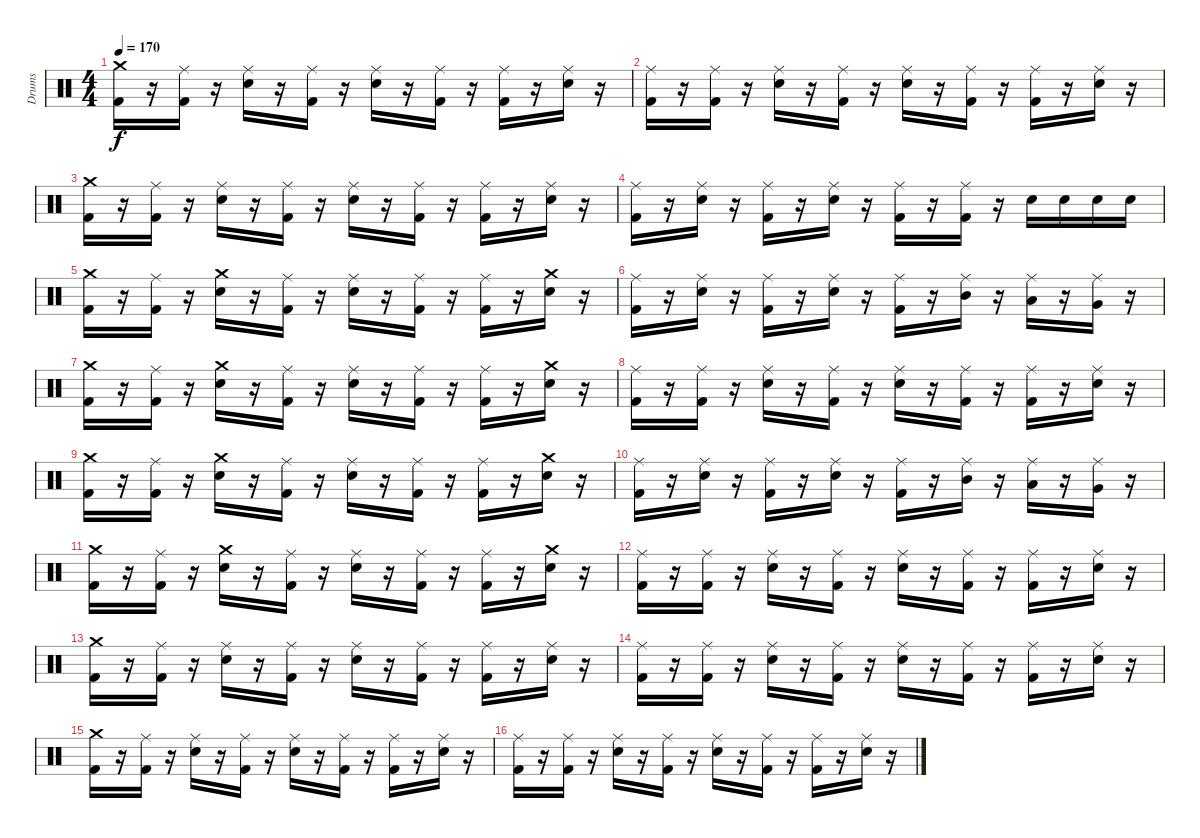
\track ("Drums" "Drums") {instrument percussion}
\staff {score}
\articulation defaults
\ts (4 4)
\tempo 170
\clef neutral
\ks c
("Crash medium (hit)" "Kick (hit) 2").16{dy f} r.16 ("Ride (middle)" "Kick (hit) 2").16 r.16 ("Ride (middle)" "Snare (hit) 2").16 r.16 ("Ride (middle)" "Kick (hit) 2").16 r.16 ("Ride (middle)" "Snare (hit) 2").16 r.16 ("Ride (middle)" "Kick (hit) 2").16 r.16 ("Ride (middle)" "Kick (hit) 2").16 r.16 ("Ride (middle)" "Snare (hit) 2").16 r.16 |
("Ride (middle)" "Kick (hit) 2").16 r.16 ("Ride (middle)" "Kick (hit) 2").16 r.16 ("Ride (middle)" "Snare (hit) 2").16 r.16 ("Ride (middle)" "Kick (hit) 2").16 r.16 ("Ride (middle)" "Snare (hit) 2").16 r.16 ("Ride (middle)" "Kick (hit) 2").16 r.16 ("Ride (middle)" "Kick (hit) 2").16 r.16 ("Ride (middle)" "Snare (hit) 2").16 r.16 |
("Crash medium (hit)" "Kick (hit) 2").16 r.16 ("Ride (middle)" "Kick (hit) 2").16 r.16 ("Ride (middle)" "Snare (hit) 2").16 r.16 ("Ride (middle)" "Kick (hit) 2").16 r.16 ("Ride (middle)" "Snare (hit) 2").16 r.16 ("Ride (middle)" "Kick (hit) 2").16 r.16 ("Ride (middle)" "Kick (hit) 2").16 r.16 ("Ride (middle)" "Snare (hit) 2").16 r.16 |
("Ride (middle)" "Kick (hit) 2").16 r.16 ("Ride (middle)" "Snare (hit) 2").16 r.16 ("Ride (middle)" "Kick (hit) 2").16 r.16 ("Ride (middle)" "Snare (hit) 2").16 r.16 ("Ride (middle)" "Kick (hit) 2").16 r.16 ("Ride (middle)" "Kick (hit) 2").16 r.16 "Snare (hit) 2".16 "Snare (hit) 2".16 "Snare (hit) 2".16 "Snare (hit) 2".16 |
("Crash medium (hit)" "Kick (hit) 2").16 r.16 ("Ride (middle)" "Kick (hit) 2").16 r.16 ("Crash medium (hit)" "Snare (hit) 2").16 r.16 ("Ride (middle)" "Kick (hit) 2").16 r.16 ("Ride (middle)" "Snare (hit) 2").16 r.16 ("Ride (middle)" "Kick (hit) 2").16 r.16 ("Ride (middle)" "Kick (hit) 2").16 r.16 ("Crash medium (hit)" "Snare (hit) 2").16 r.16 |
("Ride (middle)" "Kick (hit) 2").16 r.16 ("Ride (middle)" "Snare (hit) 2").16 r.16 ("Ride (middle)" "Kick (hit) 2").16 r.16 ("Ride (middle)" "Snare (hit) 2").16 r.16 ("Ride (middle)" "Kick (hit) 2").16 r.16 ("Ride (middle)" "Mid Tom (hit)").16 r.16 ("Ride (middle)" "Low Tom (hit)").16 r.16 ("Ride (middle)" "Very Low Tom (hit)").16 r.16 |
("Crash medium (hit)" "Kick (hit) 2").16 r.16 ("Ride (middle)" "Kick (hit) 2").16 r.16 ("Crash medium (hit)" "Snare (hit) 2").16 r.16 ("Ride (middle)" "Kick (hit) 2").16 r.16 ("Ride (middle)" "Snare (hit) 2").16 r.16 ("Ride (middle)" "Kick (hit) 2").16 r.16 ("Ride (middle)" "Kick (hit) 2").16 r.16 ("Crash medium (hit)" "Snare (hit) 2").16 r.16 |
("Ride (middle)" "Kick (hit) 2").16 r.16 ("Ride (middle)" "Kick (hit) 2").16 r.16 ("Ride (middle)" "Snare (hit) 2").16 r.16 ("Ride (middle)" "Kick (hit) 2").16 r.16 ("Ride (middle)" "Snare (hit) 2").16 r.16 ("Ride (middle)" "Kick (hit) 2").16 r.16 ("Ride (middle)" "Kick (hit) 2").16 r.16 ("Ride (middle)" "Snare (hit) 2").16 r.16 |
("Crash medium (hit)" "Kick (hit) 2").16 r.16 ("Ride (middle)" "Kick (hit) 2").16 r.16 ("Crash medium (hit)" "Snare (hit) 2").16 r.16 ("Ride (middle)" "Kick (hit) 2").16 r.16 ("Ride (middle)" "Snare (hit) 2").16 r.16 ("Ride (middle)" "Kick (hit) 2").16 r.16 ("Ride (middle)" "Kick (hit) 2").16 r.16 ("Crash medium (hit)" "Snare (hit) 2").16 r.16 |
("Ride (middle)" "Kick (hit) 2").16 r.16 ("Ride (middle)" "Snare (hit) 2").16 r.16 ("Ride (middle)" "Kick (hit) 2").16 r.16 ("Ride (middle)" "Snare (hit) 2").16 r.16 ("Ride (middle)" "Kick (hit) 2").16 r.16 ("Ride (middle)" "Mid Tom (hit)").16 r.16 ("Ride (middle)" "Low Tom (hit)").16 r.16 ("Ride (middle)" "Very Low Tom (hit)").16 r.16 |
("Crash medium (hit)" "Kick (hit) 2").16 r.16 ("Ride (middle)" "Kick (hit) 2").16 r.16 ("Crash medium (hit)" "Snare (hit) 2").16 r.16 ("Ride (middle)" "Kick (hit) 2").16 r.16 ("Ride (middle)" "Snare (hit) 2").16 r.16 ("Ride (middle)" "Kick (hit) 2").16 r.16 ("Ride (middle)" "Kick (hit) 2").16 r.16 ("Crash medium (hit)" "Snare (hit) 2").16 r.16 |
("Ride (middle)" "Kick (hit) 2").16 r.16 ("Ride (middle)" "Kick (hit) 2").16 r.16 ("Ride (middle)" "Snare (hit) 2").16 r.16 ("Ride (middle)" "Kick (hit) 2").16 r.16 ("Ride (middle)" "Snare (hit) 2").16 r.16 ("Ride (middle)" "Kick (hit) 2").16 r.16 ("Ride (middle)" "Kick (hit) 2").16 r.16 ("Ride (middle)" "Snare (hit) 2").16 r.16 |
("Crash medium (hit)" "Kick (hit) 2").16 r.16 ("Ride (middle)" "Kick (hit) 2").16 r.16 ("Ride (middle)" "Snare (hit) 2").16 r.16 ("Ride (middle)" "Kick (hit) 2").16 r.16 ("Ride (middle)" "Snare (hit) 2").16 r.16 ("Ride (middle)" "Kick (hit) 2").16 r.16 ("Ride (middle)" "Kick (hit) 2").16 r.16 ("Ride (middle)" "Snare (hit) 2").16 r.16 |
("Ride (middle)" "Kick (hit) 2").16 r.16 ("Ride (middle)" "Kick (hit) 2").16 r.16 ("Ride (middle)" "Snare (hit) 2").16 r.16 ("Ride (middle)" "Kick (hit) 2").16 r.16 ("Ride (middle)" "Snare (hit) 2").16 r.16 ("Ride (middle)" "Kick (hit) 2").16 r.16 ("Ride (middle)" "Kick (hit) 2").16 r.16 ("Ride (middle)" "Snare (hit) 2").16 r.16 |
("Crash medium (hit)" "Kick (hit) 2").16 r.16 ("Ride (middle)" "Kick (hit) 2").16 r.16 ("Ride (middle)" "Snare (hit) 2").16 r.16 ("Ride (middle)" "Kick (hit) 2").16 r.16 ("Ride (middle)" "Snare (hit) 2").16 r.16 ("Ride (middle)" "Kick (hit) 2").16 r.16 ("Ride (middle)" "Kick (hit) 2").16 r.16 ("Ride (middle)" "Snare (hit) 2").16 r.16 |
("Ride (middle)" "Kick (hit) 2").16 r.16 ("Ride (middle)" "Kick (hit) 2").16 r.16 ("Ride (middle)" "Snare (hit) 2").16 r.16 ("Ride (middle)" "Kick (hit) 2").16 r.16 ("Ride (middle)" "Snare (hit) 2").16 r.16 ("Ride (middle)" "Kick (hit) 2").16 r.16 ("Ride (middle)" "Kick (hit) 2").16 r.16 ("Ride (middle)" "Snare (hit) 2").16 r.16
